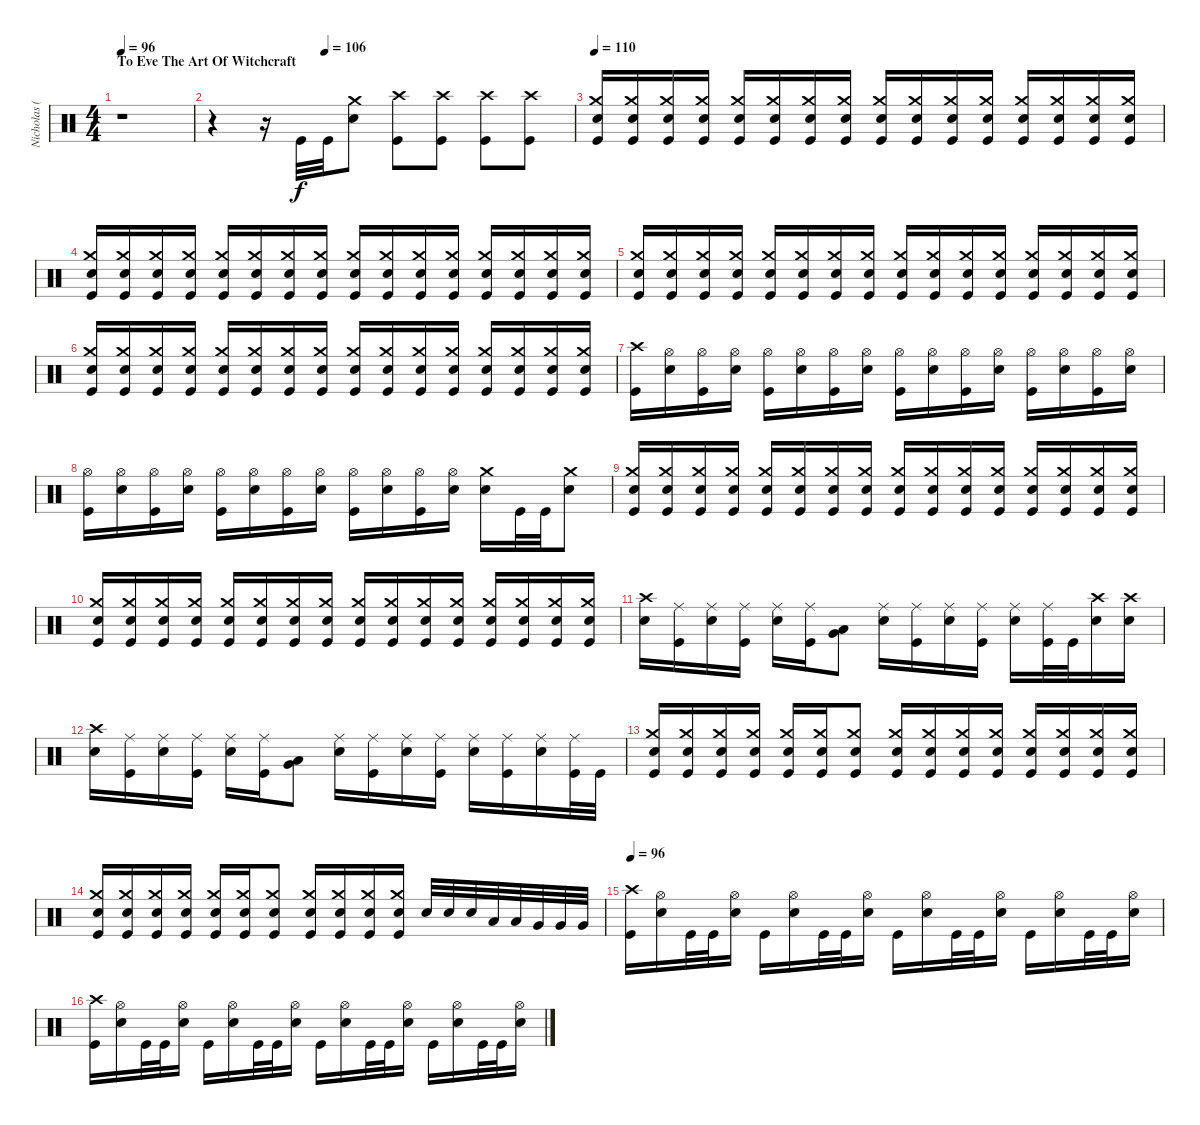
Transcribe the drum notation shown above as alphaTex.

\track ("Nicholas (Drums)" "Nicholas (") {instrument percussion}
\staff {score}
\articulation defaults
\ts (4 4)
\section ("" "To Eve The Art Of Witchcraft")
\tempo 96
\clef neutral
\ks c
r.1{dy f} |
\tempo (106 0.3125)
r.4 r.16 "Kick (hit)".32 "Kick (hit)".32 ("Crash medium (hit)" "Electric Snare (hit)").8 ("Crash high (hit)" "Kick (hit)").8 ("Crash high (hit)" "Kick (hit)").8 ("Crash high (hit)" "Kick (hit)").8 ("Crash high (hit)" "Kick (hit)").8 |
\tempo 110
("Crash medium (hit)" "Electric Snare (hit)" "Kick (hit)").16 ("Crash medium (hit)" "Electric Snare (hit)" "Kick (hit)").16 ("Crash medium (hit)" "Electric Snare (hit)" "Kick (hit)").16 ("Crash medium (hit)" "Electric Snare (hit)" "Kick (hit)").16 ("Crash medium (hit)" "Electric Snare (hit)" "Kick (hit)").16 ("Crash medium (hit)" "Electric Snare (hit)" "Kick (hit)").16 ("Crash medium (hit)" "Electric Snare (hit)" "Kick (hit)").16 ("Crash medium (hit)" "Electric Snare (hit)" "Kick (hit)").16 ("Crash medium (hit)" "Electric Snare (hit)" "Kick (hit)").16 ("Crash medium (hit)" "Electric Snare (hit)" "Kick (hit)").16 ("Crash medium (hit)" "Electric Snare (hit)" "Kick (hit)").16 ("Crash medium (hit)" "Electric Snare (hit)" "Kick (hit)").16 ("Crash medium (hit)" "Electric Snare (hit)" "Kick (hit)").16 ("Crash medium (hit)" "Electric Snare (hit)" "Kick (hit)").16 ("Crash medium (hit)" "Electric Snare (hit)" "Kick (hit)").16 ("Crash medium (hit)" "Electric Snare (hit)" "Kick (hit)").16 |
("Crash medium (hit)" "Electric Snare (hit)" "Kick (hit)").16 ("Crash medium (hit)" "Electric Snare (hit)" "Kick (hit)").16 ("Crash medium (hit)" "Electric Snare (hit)" "Kick (hit)").16 ("Crash medium (hit)" "Electric Snare (hit)" "Kick (hit)").16 ("Crash medium (hit)" "Electric Snare (hit)" "Kick (hit)").16 ("Crash medium (hit)" "Electric Snare (hit)" "Kick (hit)").16 ("Crash medium (hit)" "Electric Snare (hit)" "Kick (hit)").16 ("Crash medium (hit)" "Electric Snare (hit)" "Kick (hit)").16 ("Crash medium (hit)" "Electric Snare (hit)" "Kick (hit)").16 ("Crash medium (hit)" "Electric Snare (hit)" "Kick (hit)").16 ("Crash medium (hit)" "Electric Snare (hit)" "Kick (hit)").16 ("Crash medium (hit)" "Electric Snare (hit)" "Kick (hit)").16 ("Crash medium (hit)" "Electric Snare (hit)" "Kick (hit)").16 ("Crash medium (hit)" "Electric Snare (hit)" "Kick (hit)").16 ("Crash medium (hit)" "Electric Snare (hit)" "Kick (hit)").16 ("Crash medium (hit)" "Electric Snare (hit)" "Kick (hit)").16 |
("Crash medium (hit)" "Electric Snare (hit)" "Kick (hit)").16 ("Crash medium (hit)" "Electric Snare (hit)" "Kick (hit)").16 ("Crash medium (hit)" "Electric Snare (hit)" "Kick (hit)").16 ("Crash medium (hit)" "Electric Snare (hit)" "Kick (hit)").16 ("Crash medium (hit)" "Electric Snare (hit)" "Kick (hit)").16 ("Crash medium (hit)" "Electric Snare (hit)" "Kick (hit)").16 ("Crash medium (hit)" "Electric Snare (hit)" "Kick (hit)").16 ("Crash medium (hit)" "Electric Snare (hit)" "Kick (hit)").16 ("Crash medium (hit)" "Electric Snare (hit)" "Kick (hit)").16 ("Crash medium (hit)" "Electric Snare (hit)" "Kick (hit)").16 ("Crash medium (hit)" "Electric Snare (hit)" "Kick (hit)").16 ("Crash medium (hit)" "Electric Snare (hit)" "Kick (hit)").16 ("Crash medium (hit)" "Electric Snare (hit)" "Kick (hit)").16 ("Crash medium (hit)" "Electric Snare (hit)" "Kick (hit)").16 ("Crash medium (hit)" "Electric Snare (hit)" "Kick (hit)").16 ("Crash medium (hit)" "Electric Snare (hit)" "Kick (hit)").16 |
("Crash medium (hit)" "Electric Snare (hit)" "Kick (hit)").16 ("Crash medium (hit)" "Electric Snare (hit)" "Kick (hit)").16 ("Crash medium (hit)" "Electric Snare (hit)" "Kick (hit)").16 ("Crash medium (hit)" "Electric Snare (hit)" "Kick (hit)").16 ("Crash medium (hit)" "Electric Snare (hit)" "Kick (hit)").16 ("Crash medium (hit)" "Electric Snare (hit)" "Kick (hit)").16 ("Crash medium (hit)" "Electric Snare (hit)" "Kick (hit)").16 ("Crash medium (hit)" "Electric Snare (hit)" "Kick (hit)").16 ("Crash medium (hit)" "Electric Snare (hit)" "Kick (hit)").16 ("Crash medium (hit)" "Electric Snare (hit)" "Kick (hit)").16 ("Crash medium (hit)" "Electric Snare (hit)" "Kick (hit)").16 ("Crash medium (hit)" "Electric Snare (hit)" "Kick (hit)").16 ("Crash medium (hit)" "Electric Snare (hit)" "Kick (hit)").16 ("Crash medium (hit)" "Electric Snare (hit)" "Kick (hit)").16 ("Crash medium (hit)" "Electric Snare (hit)" "Kick (hit)").16 ("Crash medium (hit)" "Electric Snare (hit)" "Kick (hit)").16 |
("Crash high (hit)" "Kick (hit)").16 ("Hi-Hat (open)" "Electric Snare (hit)").16 ("Hi-Hat (open)" "Kick (hit)").16 ("Hi-Hat (open)" "Electric Snare (hit)").16 ("Hi-Hat (open)" "Kick (hit)").16 ("Hi-Hat (open)" "Electric Snare (hit)").16 ("Hi-Hat (open)" "Kick (hit)").16 ("Hi-Hat (open)" "Electric Snare (hit)").16 ("Hi-Hat (open)" "Kick (hit)").16 ("Hi-Hat (open)" "Electric Snare (hit)").16 ("Hi-Hat (open)" "Kick (hit)").16 ("Hi-Hat (open)" "Electric Snare (hit)").16 ("Hi-Hat (open)" "Kick (hit)").16 ("Hi-Hat (open)" "Electric Snare (hit)").16 ("Hi-Hat (open)" "Kick (hit)").16 ("Hi-Hat (open)" "Electric Snare (hit)").16 |
("Hi-Hat (open)" "Kick (hit)").16 ("Hi-Hat (open)" "Electric Snare (hit)").16 ("Hi-Hat (open)" "Kick (hit)").16 ("Hi-Hat (open)" "Electric Snare (hit)").16 ("Hi-Hat (open)" "Kick (hit)").16 ("Hi-Hat (open)" "Electric Snare (hit)").16 ("Hi-Hat (open)" "Kick (hit)").16 ("Hi-Hat (open)" "Electric Snare (hit)").16 ("Hi-Hat (open)" "Kick (hit)").16 ("Hi-Hat (open)" "Electric Snare (hit)").16 ("Hi-Hat (open)" "Kick (hit)").16 ("Hi-Hat (open)" "Electric Snare (hit)").16 ("Crash medium (hit)" "Electric Snare (hit)").16 "Kick (hit)".32 "Kick (hit)".32 ("Crash medium (hit)" "Electric Snare (hit)").8 |
("Crash medium (hit)" "Electric Snare (hit)" "Kick (hit)").16 ("Crash medium (hit)" "Electric Snare (hit)" "Kick (hit)").16 ("Crash medium (hit)" "Electric Snare (hit)" "Kick (hit)").16 ("Crash medium (hit)" "Electric Snare (hit)" "Kick (hit)").16 ("Crash medium (hit)" "Electric Snare (hit)" "Kick (hit)").16 ("Crash medium (hit)" "Electric Snare (hit)" "Kick (hit)").16 ("Crash medium (hit)" "Electric Snare (hit)" "Kick (hit)").16 ("Crash medium (hit)" "Electric Snare (hit)" "Kick (hit)").16 ("Crash medium (hit)" "Electric Snare (hit)" "Kick (hit)").16 ("Crash medium (hit)" "Electric Snare (hit)" "Kick (hit)").16 ("Crash medium (hit)" "Electric Snare (hit)" "Kick (hit)").16 ("Crash medium (hit)" "Electric Snare (hit)" "Kick (hit)").16 ("Crash medium (hit)" "Electric Snare (hit)" "Kick (hit)").16 ("Crash medium (hit)" "Electric Snare (hit)" "Kick (hit)").16 ("Crash medium (hit)" "Electric Snare (hit)" "Kick (hit)").16 ("Crash medium (hit)" "Electric Snare (hit)" "Kick (hit)").16 |
("Crash medium (hit)" "Electric Snare (hit)" "Kick (hit)").16 ("Crash medium (hit)" "Electric Snare (hit)" "Kick (hit)").16 ("Crash medium (hit)" "Electric Snare (hit)" "Kick (hit)").16 ("Crash medium (hit)" "Electric Snare (hit)" "Kick (hit)").16 ("Crash medium (hit)" "Electric Snare (hit)" "Kick (hit)").16 ("Crash medium (hit)" "Electric Snare (hit)" "Kick (hit)").16 ("Crash medium (hit)" "Electric Snare (hit)" "Kick (hit)").16 ("Crash medium (hit)" "Electric Snare (hit)" "Kick (hit)").16 ("Crash medium (hit)" "Electric Snare (hit)" "Kick (hit)").16 ("Crash medium (hit)" "Electric Snare (hit)" "Kick (hit)").16 ("Crash medium (hit)" "Electric Snare (hit)" "Kick (hit)").16 ("Crash medium (hit)" "Electric Snare (hit)" "Kick (hit)").16 ("Crash medium (hit)" "Electric Snare (hit)" "Kick (hit)").16 ("Crash medium (hit)" "Electric Snare (hit)" "Kick (hit)").16 ("Crash medium (hit)" "Electric Snare (hit)" "Kick (hit)").16 ("Crash medium (hit)" "Electric Snare (hit)" "Kick (hit)").16 |
("Crash high (hit)" "Electric Snare (hit)").16 ("Ride (middle)" "Kick (hit)").16 ("Ride (middle)" "Electric Snare (hit)").16 ("Ride (middle)" "Kick (hit)").16 ("Ride (middle)" "Electric Snare (hit)").16 ("Ride (middle)" "Kick (hit)").16 ("Low Tom (hit)" "Very Low Tom (hit)").8{bu 60} ("Ride (middle)" "Electric Snare (hit)").16 ("Ride (middle)" "Kick (hit)").16 ("Ride (middle)" "Electric Snare (hit)").16 ("Ride (middle)" "Kick (hit)").16 ("Ride (middle)" "Electric Snare (hit)").16 ("Ride (middle)" "Kick (hit)").32 "Kick (hit)".32 ("Crash high (hit)" "Electric Snare (hit)").16 ("Crash high (hit)" "Electric Snare (hit)").16 |
("Crash high (hit)" "Electric Snare (hit)").16 ("Ride (middle)" "Kick (hit)").16 ("Ride (middle)" "Electric Snare (hit)").16 ("Ride (middle)" "Kick (hit)").16 ("Ride (middle)" "Electric Snare (hit)").16 ("Ride (middle)" "Kick (hit)").16 ("Low Tom (hit)" "Very Low Tom (hit)").8{bu 60} ("Ride (middle)" "Electric Snare (hit)").16 ("Ride (middle)" "Kick (hit)").16 ("Ride (middle)" "Electric Snare (hit)").16 ("Ride (middle)" "Kick (hit)").16 ("Ride (middle)" "Electric Snare (hit)").16 ("Ride (middle)" "Kick (hit)").16 ("Ride (middle)" "Electric Snare (hit)").16 ("Ride (middle)" "Kick (hit)").32 "Kick (hit)".32 |
("Crash medium (hit)" "Electric Snare (hit)" "Kick (hit)").16 ("Crash medium (hit)" "Electric Snare (hit)" "Kick (hit)").16 ("Crash medium (hit)" "Electric Snare (hit)" "Kick (hit)").16 ("Crash medium (hit)" "Electric Snare (hit)" "Kick (hit)").16 ("Crash medium (hit)" "Electric Snare (hit)" "Kick (hit)").16 ("Crash medium (hit)" "Electric Snare (hit)" "Kick (hit)").16 ("Crash medium (hit)" "Electric Snare (hit)" "Kick (hit)").8 ("Crash medium (hit)" "Electric Snare (hit)" "Kick (hit)").16 ("Crash medium (hit)" "Electric Snare (hit)" "Kick (hit)").16 ("Crash medium (hit)" "Electric Snare (hit)" "Kick (hit)").16 ("Crash medium (hit)" "Electric Snare (hit)" "Kick (hit)").16 ("Crash medium (hit)" "Electric Snare (hit)" "Kick (hit)").16 ("Crash medium (hit)" "Electric Snare (hit)" "Kick (hit)").16 ("Crash medium (hit)" "Electric Snare (hit)" "Kick (hit)").16 ("Crash medium (hit)" "Electric Snare (hit)" "Kick (hit)").16 |
("Crash medium (hit)" "Electric Snare (hit)" "Kick (hit)").16 ("Crash medium (hit)" "Electric Snare (hit)" "Kick (hit)").16 ("Crash medium (hit)" "Electric Snare (hit)" "Kick (hit)").16 ("Crash medium (hit)" "Electric Snare (hit)" "Kick (hit)").16 ("Crash medium (hit)" "Electric Snare (hit)" "Kick (hit)").16 ("Crash medium (hit)" "Electric Snare (hit)" "Kick (hit)").16 ("Crash medium (hit)" "Electric Snare (hit)" "Kick (hit)").8 ("Crash medium (hit)" "Electric Snare (hit)" "Kick (hit)").16 ("Crash medium (hit)" "Electric Snare (hit)" "Kick (hit)").16 ("Crash medium (hit)" "Electric Snare (hit)" "Kick (hit)").16 ("Crash medium (hit)" "Electric Snare (hit)" "Kick (hit)").16 "Electric Snare (hit)".32 "Electric Snare (hit)".32 "Electric Snare (hit)".32 "Low Tom (hit)".32 "Low Tom (hit)".32 "Very Low Tom (hit)".32 "Very Low Tom (hit)".32 "Very Low Tom (hit)".32 |
\tempo 96
("Crash high (hit)" "Kick (hit)").16 ("Hi-Hat (open)" "Electric Snare (hit)").16 "Kick (hit)".32 "Kick (hit)".32 ("Hi-Hat (open)" "Electric Snare (hit)").16 "Kick (hit)".16 ("Hi-Hat (open)" "Electric Snare (hit)").16 "Kick (hit)".32 "Kick (hit)".32 ("Hi-Hat (open)" "Electric Snare (hit)").16 "Kick (hit)".16 ("Hi-Hat (open)" "Electric Snare (hit)").16 "Kick (hit)".32 "Kick (hit)".32 ("Hi-Hat (open)" "Electric Snare (hit)").16 "Kick (hit)".16 ("Hi-Hat (open)" "Electric Snare (hit)").16 "Kick (hit)".32 "Kick (hit)".32 ("Hi-Hat (open)" "Electric Snare (hit)").16 |
("Crash high (hit)" "Kick (hit)").16 ("Hi-Hat (open)" "Electric Snare (hit)").16 "Kick (hit)".32 "Kick (hit)".32 ("Hi-Hat (open)" "Electric Snare (hit)").16 "Kick (hit)".16 ("Hi-Hat (open)" "Electric Snare (hit)").16 "Kick (hit)".32 "Kick (hit)".32 ("Hi-Hat (open)" "Electric Snare (hit)").16 "Kick (hit)".16 ("Hi-Hat (open)" "Electric Snare (hit)").16 "Kick (hit)".32 "Kick (hit)".32 ("Hi-Hat (open)" "Electric Snare (hit)").16 "Kick (hit)".16 ("Hi-Hat (open)" "Electric Snare (hit)").16 "Kick (hit)".32 "Kick (hit)".32 ("Hi-Hat (open)" "Electric Snare (hit)").16
